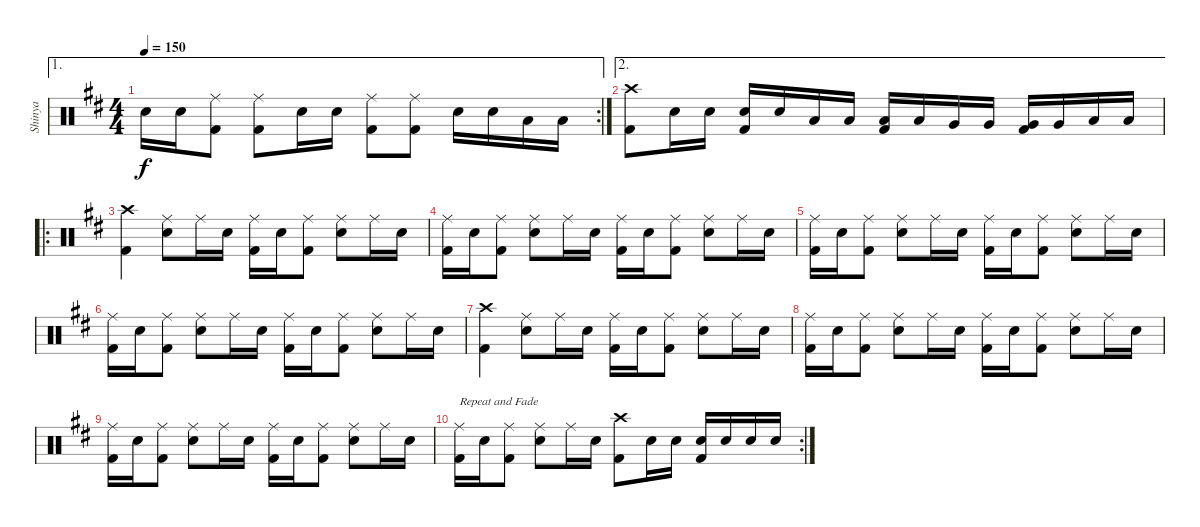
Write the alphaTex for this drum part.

\track ("Shinya" "Shinya") {instrument percussion}
\staff {score}
\articulation defaults
\ae 1
\rc 2
\ts (4 4)
\tempo 150
\clef neutral
\ks d "Electric Snare (hit)".16{dy f} "Electric Snare (hit)".16
("Ride (middle)" "Kick (hit) 2").8 ("Ride (middle)" "Kick (hit) 2").8 "Electric Snare (hit)".16 "Electric Snare (hit)".16 ("Ride (middle)" "Kick (hit) 2").8 ("Ride (middle)" "Kick (hit) 2").8 "Electric Snare (hit)".16 "Electric Snare (hit)".16 "Low Tom (hit)".16 "Low Tom (hit)".16 |
\ae 2
("Crash high (hit)" "Kick (hit) 2").8 "Electric Snare (hit)".16 "Electric Snare (hit)".16 ("Electric Snare (hit)" "Kick (hit) 2").16 "Electric Snare (hit)".16 "Low Tom (hit)".16 "Low Tom (hit)".16 ("Low Tom (hit)" "Kick (hit) 2").16 "Low Tom (hit)".16 "Very Low Tom (hit)".16 "Very Low Tom (hit)".16 ("Very Low Tom (hit)" "Kick (hit) 2").16 "Very Low Tom (hit)".16 "Low Floor Tom (hit)".16 "Low Floor Tom (hit)".16 |
\ro
("Crash high (hit)" "Kick (hit) 2").4 ("Ride (middle)" "Electric Snare (hit)").8 "Ride (middle)".16 "Electric Snare (hit)".16 ("Ride (middle)" "Kick (hit) 2").16 "Electric Snare (hit)".16 ("Ride (middle)" "Kick (hit) 2").8 ("Ride (middle)" "Electric Snare (hit)").8 "Ride (middle)".16 "Electric Snare (hit)".16 |
("Ride (middle)" "Kick (hit) 2").16 "Electric Snare (hit)".16 ("Ride (middle)" "Kick (hit) 2").8 ("Ride (middle)" "Electric Snare (hit)").8 "Ride (middle)".16 "Electric Snare (hit)".16 ("Ride (middle)" "Kick (hit) 2").16 "Electric Snare (hit)".16 ("Ride (middle)" "Kick (hit) 2").8 ("Ride (middle)" "Electric Snare (hit)").8 "Ride (middle)".16 "Electric Snare (hit)".16 |
("Ride (middle)" "Kick (hit) 2").16 "Electric Snare (hit)".16 ("Ride (middle)" "Kick (hit) 2").8 ("Ride (middle)" "Electric Snare (hit)").8 "Ride (middle)".16 "Electric Snare (hit)".16 ("Ride (middle)" "Kick (hit) 2").16 "Electric Snare (hit)".16 ("Ride (middle)" "Kick (hit) 2").8 ("Ride (middle)" "Electric Snare (hit)").8 "Ride (middle)".16 "Electric Snare (hit)".16 |
("Ride (middle)" "Kick (hit) 2").16 "Electric Snare (hit)".16 ("Ride (middle)" "Kick (hit) 2").8 ("Ride (middle)" "Electric Snare (hit)").8 "Ride (middle)".16 "Electric Snare (hit)".16 ("Ride (middle)" "Kick (hit) 2").16 "Electric Snare (hit)".16 ("Ride (middle)" "Kick (hit) 2").8 ("Ride (middle)" "Electric Snare (hit)").8 "Ride (middle)".16 "Electric Snare (hit)".16 |
("Crash high (hit)" "Kick (hit) 2").4 ("Ride (middle)" "Electric Snare (hit)").8 "Ride (middle)".16 "Electric Snare (hit)".16 ("Ride (middle)" "Kick (hit) 2").16 "Electric Snare (hit)".16 ("Ride (middle)" "Kick (hit) 2").8 ("Ride (middle)" "Electric Snare (hit)").8 "Ride (middle)".16 "Electric Snare (hit)".16 |
("Ride (middle)" "Kick (hit) 2").16 "Electric Snare (hit)".16 ("Ride (middle)" "Kick (hit) 2").8 ("Ride (middle)" "Electric Snare (hit)").8 "Ride (middle)".16 "Electric Snare (hit)".16 ("Ride (middle)" "Kick (hit) 2").16 "Electric Snare (hit)".16 ("Ride (middle)" "Kick (hit) 2").8 ("Ride (middle)" "Electric Snare (hit)").8 "Ride (middle)".16 "Electric Snare (hit)".16 |
("Ride (middle)" "Kick (hit) 2").16 "Electric Snare (hit)".16 ("Ride (middle)" "Kick (hit) 2").8 ("Ride (middle)" "Electric Snare (hit)").8 "Ride (middle)".16 "Electric Snare (hit)".16 ("Ride (middle)" "Kick (hit) 2").16 "Electric Snare (hit)".16 ("Ride (middle)" "Kick (hit) 2").8 ("Ride (middle)" "Electric Snare (hit)").8 "Ride (middle)".16 "Electric Snare (hit)".16 |
\rc 2
("Ride (middle)" "Kick (hit) 2").16{txt "Repeat and Fade"} "Electric Snare (hit)".16 ("Ride (middle)" "Kick (hit) 2").8 ("Ride (middle)" "Electric Snare (hit)").8 "Ride (middle)".16 "Electric Snare (hit)".16 ("Crash high (hit)" "Kick (hit) 2").8 "Electric Snare (hit)".16 "Electric Snare (hit)".16 ("Electric Snare (hit)" "Kick (hit) 2").16 "Electric Snare (hit)".16 "Electric Snare (hit)".16 "Electric Snare (hit)".16
